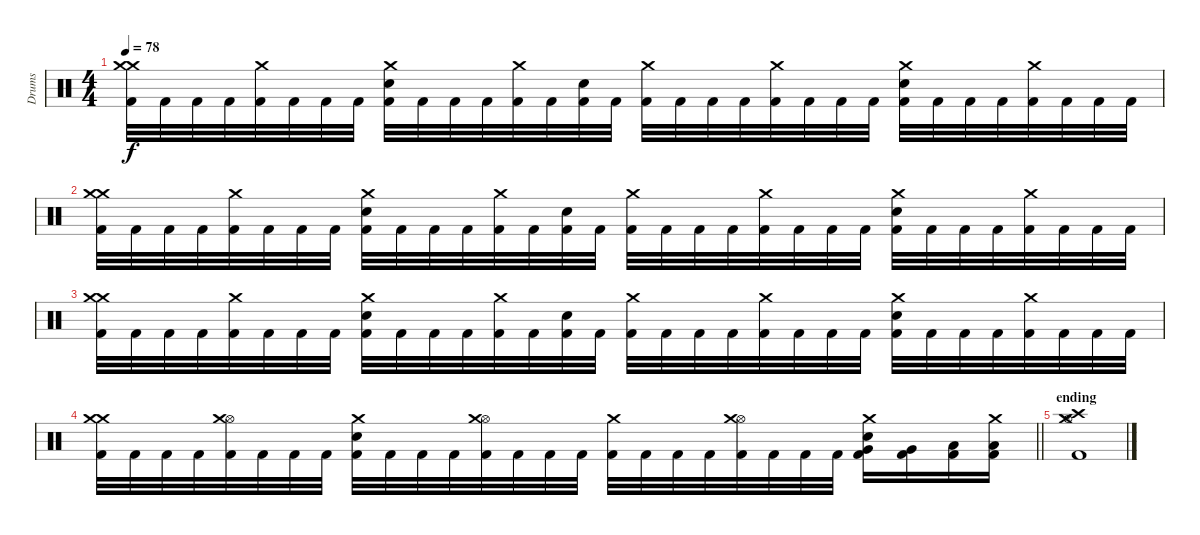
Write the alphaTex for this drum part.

\track ("Drums" "Drums") {instrument percussion}
\staff {score}
\articulation defaults
\ts (4 4)
\tempo 78
\clef neutral
\ks c
("Crash medium (hit)" "Kick (hit) 2" "Crash medium (hit)").32{dy f} "Kick (hit) 2".32 "Kick (hit) 2".32 "Kick (hit) 2".32 ("Kick (hit) 2" "Crash medium (hit)").32 "Kick (hit) 2".32 "Kick (hit) 2".32 "Kick (hit) 2".32 ("Electric Snare (hit)" "Kick (hit) 2" "Crash medium (hit)").32 "Kick (hit) 2".32 "Kick (hit) 2".32 "Kick (hit) 2".32 ("Kick (hit) 2" "Crash medium (hit)").32 "Kick (hit) 2".32 ("Electric Snare (hit)" "Kick (hit) 2").32 "Kick (hit) 2".32 ("Kick (hit) 2" "Crash medium (hit)").32 "Kick (hit) 2".32 "Kick (hit) 2".32 "Kick (hit) 2".32 ("Kick (hit) 2" "Crash medium (hit)").32 "Kick (hit) 2".32 "Kick (hit) 2".32 "Kick (hit) 2".32 ("Electric Snare (hit)" "Kick (hit) 2" "Crash medium (hit)").32 "Kick (hit) 2".32 "Kick (hit) 2".32 "Kick (hit) 2".32 ("Kick (hit) 2" "Crash medium (hit)").32 "Kick (hit) 2".32 "Kick (hit) 2".32 "Kick (hit) 2".32 |
("Crash medium (hit)" "Kick (hit) 2" "Crash medium (hit)").32 "Kick (hit) 2".32 "Kick (hit) 2".32 "Kick (hit) 2".32 ("Kick (hit) 2" "Crash medium (hit)").32 "Kick (hit) 2".32 "Kick (hit) 2".32 "Kick (hit) 2".32 ("Electric Snare (hit)" "Kick (hit) 2" "Crash medium (hit)").32 "Kick (hit) 2".32 "Kick (hit) 2".32 "Kick (hit) 2".32 ("Kick (hit) 2" "Crash medium (hit)").32 "Kick (hit) 2".32 ("Electric Snare (hit)" "Kick (hit) 2").32 "Kick (hit) 2".32 ("Kick (hit) 2" "Crash medium (hit)").32 "Kick (hit) 2".32 "Kick (hit) 2".32 "Kick (hit) 2".32 ("Kick (hit) 2" "Crash medium (hit)").32 "Kick (hit) 2".32 "Kick (hit) 2".32 "Kick (hit) 2".32 ("Electric Snare (hit)" "Kick (hit) 2" "Crash medium (hit)").32 "Kick (hit) 2".32 "Kick (hit) 2".32 "Kick (hit) 2".32 ("Kick (hit) 2" "Crash medium (hit)").32 "Kick (hit) 2".32 "Kick (hit) 2".32 "Kick (hit) 2".32 |
("Crash medium (hit)" "Kick (hit) 2" "Crash medium (hit)").32 "Kick (hit) 2".32 "Kick (hit) 2".32 "Kick (hit) 2".32 ("Kick (hit) 2" "Crash medium (hit)").32 "Kick (hit) 2".32 "Kick (hit) 2".32 "Kick (hit) 2".32 ("Electric Snare (hit)" "Kick (hit) 2" "Crash medium (hit)").32 "Kick (hit) 2".32 "Kick (hit) 2".32 "Kick (hit) 2".32 ("Kick (hit) 2" "Crash medium (hit)").32 "Kick (hit) 2".32 ("Electric Snare (hit)" "Kick (hit) 2").32 "Kick (hit) 2".32 ("Kick (hit) 2" "Crash medium (hit)").32 "Kick (hit) 2".32 "Kick (hit) 2".32 "Kick (hit) 2".32 ("Kick (hit) 2" "Crash medium (hit)").32 "Kick (hit) 2".32 "Kick (hit) 2".32 "Kick (hit) 2".32 ("Electric Snare (hit)" "Kick (hit) 2" "Crash medium (hit)").32 "Kick (hit) 2".32 "Kick (hit) 2".32 "Kick (hit) 2".32 ("Kick (hit) 2" "Crash medium (hit)").32 "Kick (hit) 2".32 "Kick (hit) 2".32 "Kick (hit) 2".32 |
\barLineRight lightlight
("Crash medium (hit)" "Kick (hit) 2" "Crash medium (hit)").32 "Kick (hit) 2".32 "Kick (hit) 2".32 "Kick (hit) 2".32 ("Hi-Hat (open)" "Kick (hit) 2" "Crash medium (hit)").32 "Kick (hit) 2".32 "Kick (hit) 2".32 "Kick (hit) 2".32 ("Electric Snare (hit)" "Kick (hit) 2" "Crash medium (hit)").32 "Kick (hit) 2".32 "Kick (hit) 2".32 "Kick (hit) 2".32 ("Hi-Hat (open)" "Kick (hit) 2" "Crash medium (hit)").32 "Kick (hit) 2".32 "Kick (hit) 2".32 "Kick (hit) 2".32 ("Kick (hit) 2" "Crash medium (hit)").32 "Kick (hit) 2".32 "Kick (hit) 2".32 "Kick (hit) 2".32 ("Hi-Hat (open)" "Kick (hit) 2" "Crash medium (hit)").32 "Kick (hit) 2".32 "Kick (hit) 2".32 "Kick (hit) 2".32 ("Very Low Tom (hit)" "Electric Snare (hit)" "Kick (hit) 2" "Crash medium (hit)").16 ("Very Low Tom (hit)" "Kick (hit) 2").16 ("Low Floor Tom (hit)" "Kick (hit) 2").16 ("Low Floor Tom (hit)" "Kick (hit) 2" "Crash medium (hit)").16 |
\section ("" "ending")
("Crash high (hit)" "Crash medium (hit)" "Kick (hit) 2" "Hi-Hat (open)").1
